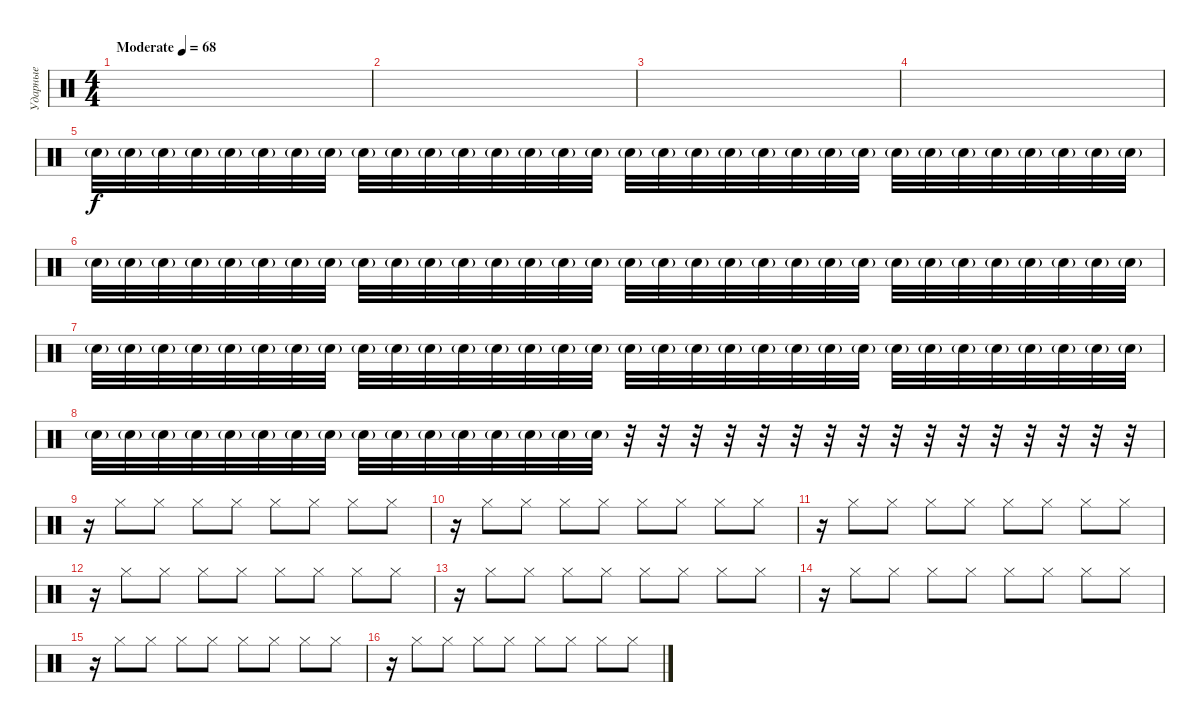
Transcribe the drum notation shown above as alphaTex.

\track ("Ударные" "Ударные") {instrument percussion}
\staff {score}
\articulation defaults
\ts (4 4)
\tempo (68 "Moderate")
\clef neutral
\ks c
|
|
|
|
"Snare (hit) 2"{g}.32 "Snare (hit) 2"{g}.32 "Snare (hit) 2"{g}.32 "Snare (hit) 2"{g}.32 "Snare (hit) 2"{g}.32 "Snare (hit) 2"{g}.32 "Snare (hit) 2"{g}.32 "Snare (hit) 2"{g}.32 "Snare (hit) 2"{g}.32 "Snare (hit) 2"{g}.32 "Snare (hit) 2"{g}.32 "Snare (hit) 2"{g}.32 "Snare (hit) 2"{g}.32 "Snare (hit) 2"{g}.32 "Snare (hit) 2"{g}.32 "Snare (hit) 2"{g}.32 "Snare (hit) 2"{g}.32 "Snare (hit) 2"{g}.32 "Snare (hit) 2"{g}.32 "Snare (hit) 2"{g}.32 "Snare (hit) 2"{g}.32 "Snare (hit) 2"{g}.32 "Snare (hit) 2"{g}.32 "Snare (hit) 2"{g}.32 "Snare (hit) 2"{g}.32 "Snare (hit) 2"{g}.32 "Snare (hit) 2"{g}.32 "Snare (hit) 2"{g}.32 "Snare (hit) 2"{g}.32 "Snare (hit) 2"{g}.32 "Snare (hit) 2"{g}.32 "Snare (hit) 2"{g}.32 |
"Snare (hit) 2"{g}.32 "Snare (hit) 2"{g}.32 "Snare (hit) 2"{g}.32 "Snare (hit) 2"{g}.32 "Snare (hit) 2"{g}.32 "Snare (hit) 2"{g}.32 "Snare (hit) 2"{g}.32 "Snare (hit) 2"{g}.32 "Snare (hit) 2"{g}.32 "Snare (hit) 2"{g}.32 "Snare (hit) 2"{g}.32 "Snare (hit) 2"{g}.32 "Snare (hit) 2"{g}.32 "Snare (hit) 2"{g}.32 "Snare (hit) 2"{g}.32 "Snare (hit) 2"{g}.32 "Snare (hit) 2"{g}.32 "Snare (hit) 2"{g}.32 "Snare (hit) 2"{g}.32 "Snare (hit) 2"{g}.32 "Snare (hit) 2"{g}.32 "Snare (hit) 2"{g}.32 "Snare (hit) 2"{g}.32 "Snare (hit) 2"{g}.32 "Snare (hit) 2"{g}.32 "Snare (hit) 2"{g}.32 "Snare (hit) 2"{g}.32 "Snare (hit) 2"{g}.32 "Snare (hit) 2"{g}.32 "Snare (hit) 2"{g}.32 "Snare (hit) 2"{g}.32 "Snare (hit) 2"{g}.32 |
"Snare (hit) 2"{g}.32 "Snare (hit) 2"{g}.32 "Snare (hit) 2"{g}.32 "Snare (hit) 2"{g}.32 "Snare (hit) 2"{g}.32 "Snare (hit) 2"{g}.32 "Snare (hit) 2"{g}.32 "Snare (hit) 2"{g}.32 "Snare (hit) 2"{g}.32 "Snare (hit) 2"{g}.32 "Snare (hit) 2"{g}.32 "Snare (hit) 2"{g}.32 "Snare (hit) 2"{g}.32 "Snare (hit) 2"{g}.32 "Snare (hit) 2"{g}.32 "Snare (hit) 2"{g}.32 "Snare (hit) 2"{g}.32 "Snare (hit) 2"{g}.32 "Snare (hit) 2"{g}.32 "Snare (hit) 2"{g}.32 "Snare (hit) 2"{g}.32 "Snare (hit) 2"{g}.32 "Snare (hit) 2"{g}.32 "Snare (hit) 2"{g}.32 "Snare (hit) 2"{g}.32 "Snare (hit) 2"{g}.32 "Snare (hit) 2"{g}.32 "Snare (hit) 2"{g}.32 "Snare (hit) 2"{g}.32 "Snare (hit) 2"{g}.32 "Snare (hit) 2"{g}.32 "Snare (hit) 2"{g}.32 |
"Snare (hit) 2"{g}.32 "Snare (hit) 2"{g}.32 "Snare (hit) 2"{g}.32 "Snare (hit) 2"{g}.32 "Snare (hit) 2"{g}.32 "Snare (hit) 2"{g}.32 "Snare (hit) 2"{g}.32 "Snare (hit) 2"{g}.32 "Snare (hit) 2"{g}.32 "Snare (hit) 2"{g}.32 "Snare (hit) 2"{g}.32 "Snare (hit) 2"{g}.32 "Snare (hit) 2"{g}.32 "Snare (hit) 2"{g}.32 "Snare (hit) 2"{g}.32 "Snare (hit) 2"{g}.32 r.32 r.32 r.32 r.32 r.32 r.32 r.32 r.32 r.32 r.32 r.32 r.32 r.32 r.32 r.32 r.32 |
r.16 "Hi-Hat (closed)".8{dy f} "Hi-Hat (closed)".8 "Hi-Hat (closed)".8 "Hi-Hat (closed)".8 "Hi-Hat (closed)".8 "Hi-Hat (closed)".8 "Hi-Hat (closed)".8 "Hi-Hat (closed)".8 |
r.16 "Hi-Hat (closed)".8 "Hi-Hat (closed)".8 "Hi-Hat (closed)".8 "Hi-Hat (closed)".8 "Hi-Hat (closed)".8 "Hi-Hat (closed)".8 "Hi-Hat (closed)".8 "Hi-Hat (closed)".8 |
r.16 "Hi-Hat (closed)".8 "Hi-Hat (closed)".8 "Hi-Hat (closed)".8 "Hi-Hat (closed)".8 "Hi-Hat (closed)".8 "Hi-Hat (closed)".8 "Hi-Hat (closed)".8 "Hi-Hat (closed)".8 |
r.16 "Hi-Hat (closed)".8 "Hi-Hat (closed)".8 "Hi-Hat (closed)".8 "Hi-Hat (closed)".8 "Hi-Hat (closed)".8 "Hi-Hat (closed)".8 "Hi-Hat (closed)".8 "Hi-Hat (closed)".8 |
r.16 "Hi-Hat (closed)".8 "Hi-Hat (closed)".8 "Hi-Hat (closed)".8 "Hi-Hat (closed)".8 "Hi-Hat (closed)".8 "Hi-Hat (closed)".8 "Hi-Hat (closed)".8 "Hi-Hat (closed)".8 |
r.16 "Hi-Hat (closed)".8 "Hi-Hat (closed)".8 "Hi-Hat (closed)".8 "Hi-Hat (closed)".8 "Hi-Hat (closed)".8 "Hi-Hat (closed)".8 "Hi-Hat (closed)".8 "Hi-Hat (closed)".8 |
r.16 "Hi-Hat (closed)".8 "Hi-Hat (closed)".8 "Hi-Hat (closed)".8 "Hi-Hat (closed)".8 "Hi-Hat (closed)".8 "Hi-Hat (closed)".8 "Hi-Hat (closed)".8 "Hi-Hat (closed)".8 |
r.16 "Hi-Hat (closed)".8 "Hi-Hat (closed)".8 "Hi-Hat (closed)".8 "Hi-Hat (closed)".8 "Hi-Hat (closed)".8 "Hi-Hat (closed)".8 "Hi-Hat (closed)".8 "Hi-Hat (closed)".8
